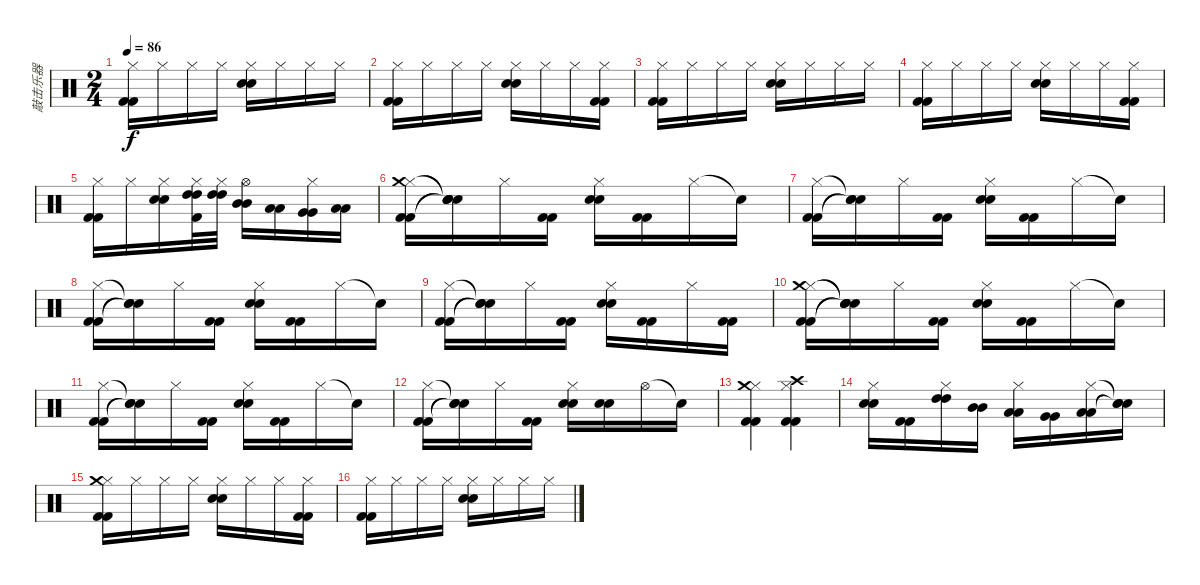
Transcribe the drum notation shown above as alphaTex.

\track ("敲击乐器" "敲击乐器") {instrument percussion}
\staff {score}
\articulation defaults
\ts (2 4)
\tempo 86
\clef neutral
\ks c
("Hi-Hat (closed)" "Kick (hit) 2" "Kick (hit) 2").16{dy f} "Hi-Hat (closed)".16 "Hi-Hat (closed)".16 "Hi-Hat (closed)".16 ("Hi-Hat (closed)" "Electric Snare (hit)" "Electric Snare (hit)").16 "Hi-Hat (closed)".16 "Hi-Hat (closed)".16 "Hi-Hat (closed)".16 |
("Hi-Hat (closed)" "Kick (hit) 2" "Kick (hit) 2").16 "Hi-Hat (closed)".16 "Hi-Hat (closed)".16 "Hi-Hat (closed)".16 ("Hi-Hat (closed)" "Electric Snare (hit)" "Electric Snare (hit)").16 "Hi-Hat (closed)".16 "Hi-Hat (closed)".16 ("Hi-Hat (closed)" "Kick (hit) 2" "Kick (hit) 2").16 |
("Hi-Hat (closed)" "Kick (hit) 2" "Kick (hit) 2").16 "Hi-Hat (closed)".16 "Hi-Hat (closed)".16 "Hi-Hat (closed)".16 ("Hi-Hat (closed)" "Electric Snare (hit)" "Electric Snare (hit)").16 "Hi-Hat (closed)".16 "Hi-Hat (closed)".16 "Hi-Hat (closed)".16 |
("Hi-Hat (closed)" "Kick (hit) 2" "Kick (hit) 2").16 "Hi-Hat (closed)".16 "Hi-Hat (closed)".16 "Hi-Hat (closed)".16 ("Hi-Hat (closed)" "Electric Snare (hit)" "Electric Snare (hit)").16 "Hi-Hat (closed)".16 "Hi-Hat (closed)".16 ("Hi-Hat (closed)" "Kick (hit) 2" "Kick (hit) 2").16 |
("Hi-Hat (closed)" "Kick (hit) 2" "Kick (hit) 2").16 "Hi-Hat (closed)".16 ("Hi-Hat (closed)" "Electric Snare (hit)" "Electric Snare (hit)").16 ("Hi-Hat (closed)" "High Tom (hit)" "High Tom (hit)" "Kick (hit) 2").32 ("Hi-Hat (closed)" "High Tom (hit)" "High Tom (hit)").32 ("Hi-Hat (open)" "Mid Tom (hit)" "Mid Tom (hit)").16 ("Low Tom (hit)" "Low Tom (hit)").16 ("Hi-Hat (closed)" "Very Low Tom (hit)" "Very Low Tom (hit)").16 ("Low Floor Tom (hit)" "Low Floor Tom (hit)").16 |
("Hi-Hat (closed)" "Crash medium (hit)" "Kick (hit) 2" "Kick (hit) 2").16 ("Snare (hit)"{t} "Snare (hit)"{t} "Snare (hit)"{t} "Snare (hit)"{t}).16 "Hi-Hat (closed)".16 ("Kick (hit) 2" "Kick (hit) 2").16 ("Hi-Hat (closed)" "Electric Snare (hit)" "Electric Snare (hit)").16 ("Kick (hit) 2" "Kick (hit) 2").16 "Hi-Hat (closed)".16 "Snare (hit)"{t}.16 |
("Hi-Hat (closed)" "Kick (hit) 2" "Kick (hit) 2").16 ("Snare (hit)"{t} "Snare (hit)"{t} "Snare (hit)"{t}).16 "Hi-Hat (closed)".16 ("Kick (hit) 2" "Kick (hit) 2").16 ("Hi-Hat (closed)" "Electric Snare (hit)" "Electric Snare (hit)").16 ("Kick (hit) 2" "Kick (hit) 2").16 "Hi-Hat (closed)".16 "Snare (hit)"{t}.16 |
("Hi-Hat (closed)" "Kick (hit) 2" "Kick (hit) 2").16 ("Snare (hit)"{t} "Snare (hit)"{t} "Snare (hit)"{t}).16 "Hi-Hat (closed)".16 ("Kick (hit) 2" "Kick (hit) 2").16 ("Hi-Hat (closed)" "Electric Snare (hit)" "Electric Snare (hit)").16 ("Kick (hit) 2" "Kick (hit) 2").16 "Hi-Hat (closed)".16 "Snare (hit)"{t}.16 |
("Hi-Hat (closed)" "Kick (hit) 2" "Kick (hit) 2").16 ("Snare (hit)"{t} "Snare (hit)"{t} "Snare (hit)"{t}).16 "Hi-Hat (closed)".16 ("Kick (hit) 2" "Kick (hit) 2").16 ("Hi-Hat (closed)" "Electric Snare (hit)" "Electric Snare (hit)").16 ("Kick (hit) 2" "Kick (hit) 2").16 "Hi-Hat (closed)".16 ("Kick (hit) 2" "Kick (hit) 2").16 |
("Hi-Hat (closed)" "Crash medium (hit)" "Kick (hit) 2" "Kick (hit) 2").16 ("Snare (hit)"{t} "Snare (hit)"{t} "Snare (hit)"{t} "Snare (hit)"{t}).16 "Hi-Hat (closed)".16 ("Kick (hit) 2" "Kick (hit) 2").16 ("Hi-Hat (closed)" "Electric Snare (hit)" "Electric Snare (hit)").16 ("Kick (hit) 2" "Kick (hit) 2").16 "Hi-Hat (closed)".16 "Snare (hit)"{t}.16 |
("Hi-Hat (closed)" "Kick (hit) 2" "Kick (hit) 2").16 ("Snare (hit)"{t} "Snare (hit)"{t} "Snare (hit)"{t}).16 "Hi-Hat (closed)".16 ("Kick (hit) 2" "Kick (hit) 2").16 ("Hi-Hat (closed)" "Electric Snare (hit)" "Electric Snare (hit)").16 ("Kick (hit) 2" "Kick (hit) 2").16 "Hi-Hat (closed)".16 "Snare (hit)"{t}.16 |
("Hi-Hat (closed)" "Kick (hit) 2" "Kick (hit) 2").16 ("Snare (hit)"{t} "Snare (hit)"{t} "Snare (hit)"{t}).16 "Hi-Hat (closed)".16 ("Kick (hit) 2" "Kick (hit) 2").16 ("Hi-Hat (closed)" "Electric Snare (hit)" "Electric Snare (hit)").16 ("Electric Snare (hit)" "Electric Snare (hit)").16 "Hi-Hat (open)".16 "Snare (hit)"{t}.16 |
("Hi-Hat (closed)" "Crash medium (hit)" "Kick (hit) 2" "Kick (hit) 2").4 ("Hi-Hat (closed)" "Crash high (hit)" "Kick (hit) 2" "Kick (hit) 2").4 |
("Hi-Hat (closed)" "Electric Snare (hit)" "Electric Snare (hit)").16 ("Kick (hit) 2" "Kick (hit) 2").16 ("Hi-Hat (closed)" "High Tom (hit)" "High Tom (hit)").16 ("Mid Tom (hit)" "Mid Tom (hit)").16 ("Hi-Hat (closed)" "Low Tom (hit)" "Low Tom (hit)").16 ("Very Low Tom (hit)" "Very Low Tom (hit)").16 ("Hi-Hat (closed)" "Low Floor Tom (hit)" "Low Floor Tom (hit)").16 ("Snare (hit)"{t} "Snare (hit)"{t} "Snare (hit)"{t}).16 |
("Hi-Hat (closed)" "Crash medium (hit)" "Kick (hit) 2" "Kick (hit) 2").16 "Hi-Hat (closed)".16 "Hi-Hat (closed)".16 "Hi-Hat (closed)".16 ("Hi-Hat (closed)" "Electric Snare (hit)" "Electric Snare (hit)").16 "Hi-Hat (closed)".16 "Hi-Hat (closed)".16 ("Hi-Hat (closed)" "Kick (hit) 2" "Kick (hit) 2").16 |
("Hi-Hat (closed)" "Kick (hit) 2" "Kick (hit) 2").16 "Hi-Hat (closed)".16 "Hi-Hat (closed)".16 "Hi-Hat (closed)".16 ("Hi-Hat (closed)" "Electric Snare (hit)" "Electric Snare (hit)").16 "Hi-Hat (closed)".16 "Hi-Hat (closed)".16 "Hi-Hat (closed)".16
